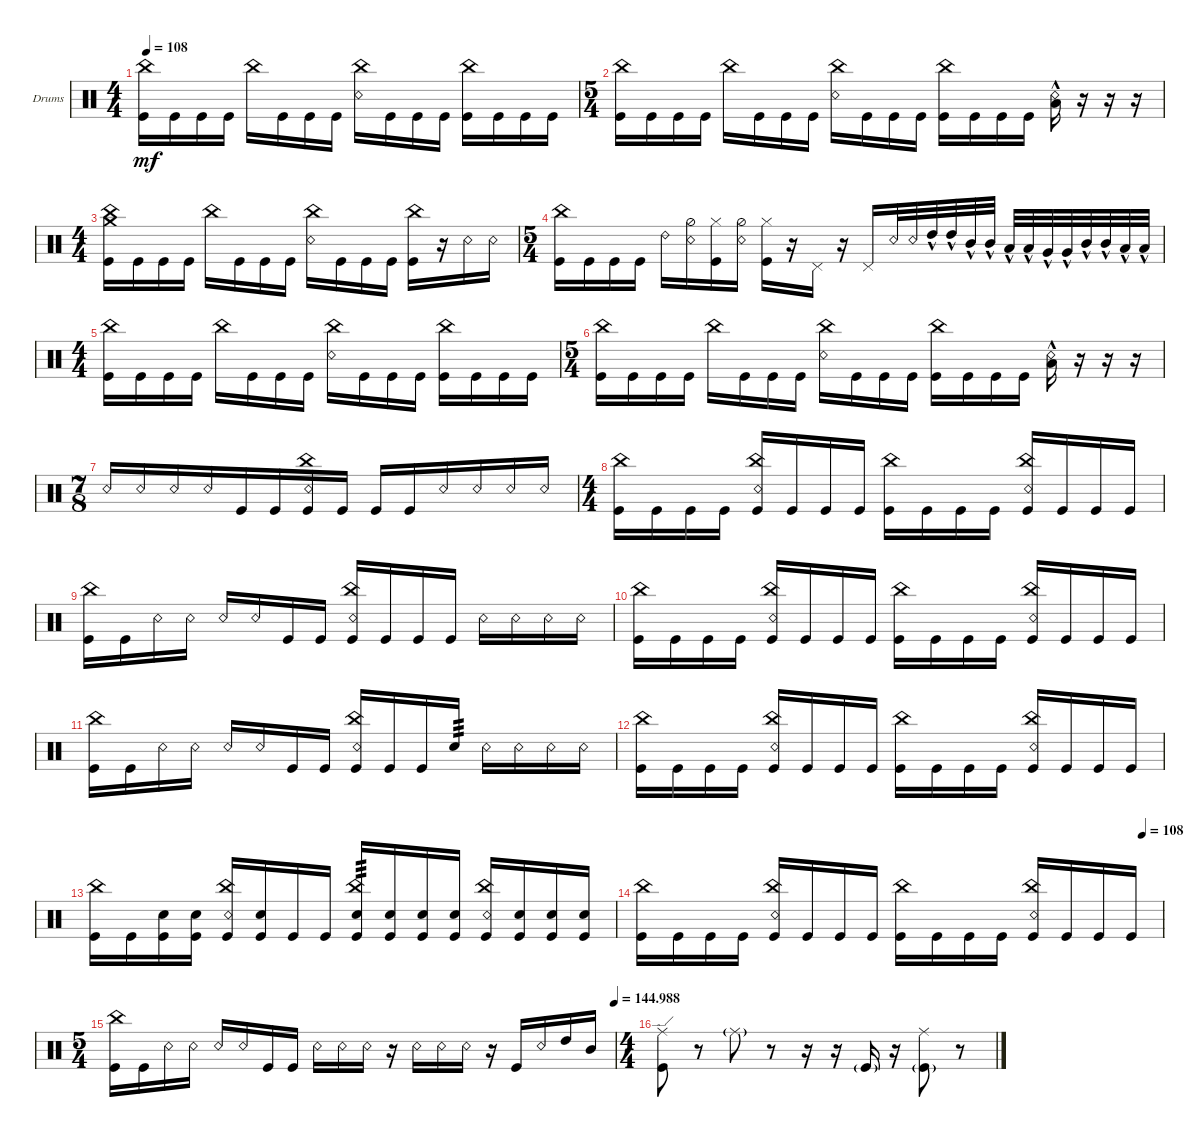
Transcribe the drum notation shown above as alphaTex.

\defaultSystemsLayout 4
\bracketExtendMode groupsimilarinstruments
\firstSystemTrackNameOrientation horizontal
\otherSystemsTrackNameOrientation horizontal
\track ("Drumkit" "Drums") {solo instrument percussion}
\staff {score}
\articulation defaults
\ts (4 4)
\tempo 108
\clef neutral
\ks c
("Kick (hit)" "China (hit)").16{dy mf} "Kick (hit)".16 "Kick (hit)".16 "Kick (hit)".16 "China (hit)".16 "Kick (hit)".16 "Kick (hit)".16 "Kick (hit)".16 ("Snare (rim shot)" "China (hit)").16 "Kick (hit)".16 "Kick (hit)".16 "Kick (hit)".16 ("Kick (hit)" "China (hit)").16 "Kick (hit)".16 "Kick (hit)".16 "Kick (hit)".16 |
\ts (5 4)
("Kick (hit)" "China (hit)").16 "Kick (hit)".16 "Kick (hit)".16 "Kick (hit)".16 "China (hit)".16 "Kick (hit)".16 "Kick (hit)".16 "Kick (hit)".16 ("Snare (rim shot)" "China (hit)").16 "Kick (hit)".16 "Kick (hit)".16 "Kick (hit)".16 ("Kick (hit)" "China (hit)").16 "Kick (hit)".16 "Kick (hit)".16 "Kick (hit)".16 ("Snare (rim shot)"{hac} "Low Tom (hit)"{hac}).16 r.16 r.16 r.16 |
\ts (4 4)
("Kick (hit)" "China (hit)" "Crash medium (hit)").16 "Kick (hit)".16 "Kick (hit)".16 "Kick (hit)".16 "China (hit)".16 "Kick (hit)".16 "Kick (hit)".16 "Kick (hit)".16 ("Snare (rim shot)" "China (hit)").16 "Kick (hit)".16 "Kick (hit)".16 "Kick (hit)".16 ("Kick (hit)" "China (hit)").16 r.16 "Snare (rim shot)".16 "Snare (rim shot)".16 |
\ts (5 4)
("Kick (hit)" "China (hit)").16 "Kick (hit)".16 "Kick (hit)".16 "Kick (hit)".16 "Ride (bell) 2".16 ("Snare (rim shot)" "Hi-Hat (half)").16 ("Hi-Hat (closed)" "Kick (hit)").16 ("Snare (rim shot)" "Hi-Hat (half)").16 ("Hi-Hat (closed)" "Kick (hit)").16 r.16 "Pedal Hi-Hat (hit)".16 r.16 "Pedal Hi-Hat (hit)".16 "Snare (rim shot)".32 "Snare (rim shot)".32 "High Tom (hit)"{hac}.32 "High Tom (hit)"{hac}.32 "Mid Tom (hit)"{hac}.32 "Mid Tom (hit)"{hac}.32 "Low Tom (hit)"{hac}.32 "Low Tom (hit)"{hac}.32 "Very Low Tom (hit)"{hac}.32 "Very Low Tom (hit)"{hac}.32 "Mid Tom (hit)"{hac}.32 "Mid Tom (hit)"{hac}.32 "Low Tom (hit)"{hac}.32 "Low Tom (hit)"{hac}.32 |
\ts (4 4)
("Kick (hit)" "China (hit)").16 "Kick (hit)".16 "Kick (hit)".16 "Kick (hit)".16 "China (hit)".16 "Kick (hit)".16 "Kick (hit)".16 "Kick (hit)".16 ("Snare (rim shot)" "China (hit)").16 "Kick (hit)".16 "Kick (hit)".16 "Kick (hit)".16 ("Kick (hit)" "China (hit)").16 "Kick (hit)".16 "Kick (hit)".16 "Kick (hit)".16 |
\ts (5 4)
("Kick (hit)" "China (hit)").16 "Kick (hit)".16 "Kick (hit)".16 "Kick (hit)".16 "China (hit)".16 "Kick (hit)".16 "Kick (hit)".16 "Kick (hit)".16 ("Snare (rim shot)" "China (hit)").16 "Kick (hit)".16 "Kick (hit)".16 "Kick (hit)".16 ("Kick (hit)" "China (hit)").16 "Kick (hit)".16 "Kick (hit)".16 "Kick (hit)".16 ("Snare (rim shot)"{hac} "Low Tom (hit)"{hac}).16 r.16 r.16 r.16 |
\ts (7 8)
"Snare (rim shot)".16 "Snare (rim shot)".16 "Snare (rim shot)".16 "Snare (rim shot)".16 "Kick (hit)".16 "Kick (hit)".16 ("Kick (hit)" "Snare (rim shot)" "China (hit)").16 "Kick (hit)".16 "Kick (hit)".16 "Kick (hit)".16 "Snare (rim shot)".16 "Snare (rim shot)".16 "Snare (rim shot)".16 "Snare (rim shot)".16 |
\ts (4 4)
("Kick (hit)" "China (hit)").16 "Kick (hit)".16 "Kick (hit)".16 "Kick (hit)".16 ("Kick (hit)" "China (hit)" "Snare (rim shot)").16 "Kick (hit)".16 "Kick (hit)".16 "Kick (hit)".16 ("Kick (hit)" "China (hit)").16 "Kick (hit)".16 "Kick (hit)".16 "Kick (hit)".16 ("Kick (hit)" "China (hit)" "Snare (rim shot)").16 "Kick (hit)".16 "Kick (hit)".16 "Kick (hit)".16 |
("Kick (hit)" "China (hit)").16 "Kick (hit)".16 "Snare (rim shot)".16 "Snare (rim shot)".16 "Snare (rim shot)".16 "Snare (rim shot)".16 "Kick (hit)".16 "Kick (hit)".16 ("Kick (hit)" "Snare (rim shot)" "China (hit)").16 "Kick (hit)".16 "Kick (hit)".16 "Kick (hit)".16 "Snare (rim shot)".16 "Snare (rim shot)".16 "Snare (rim shot)".16 "Snare (rim shot)".16 |
("Kick (hit)" "China (hit)").16 "Kick (hit)".16 "Kick (hit)".16 "Kick (hit)".16 ("Kick (hit)" "China (hit)" "Snare (rim shot)").16 "Kick (hit)".16 "Kick (hit)".16 "Kick (hit)".16 ("Kick (hit)" "China (hit)").16 "Kick (hit)".16 "Kick (hit)".16 "Kick (hit)".16 ("Kick (hit)" "China (hit)" "Snare (rim shot)").16 "Kick (hit)".16 "Kick (hit)".16 "Kick (hit)".16 |
("Kick (hit)" "China (hit)").16 "Kick (hit)".16 "Snare (rim shot)".16 "Snare (rim shot)".16 "Snare (rim shot)".16 "Snare (rim shot)".16 "Kick (hit)".16 "Kick (hit)".16 ("Kick (hit)" "Snare (rim shot)" "China (hit)").16 "Kick (hit)".16 "Kick (hit)".16 "Snare (hit) 2".16{tp 3} "Snare (rim shot)".16 "Snare (rim shot)".16 "Snare (rim shot)".16 "Snare (rim shot)".16 |
("Kick (hit)" "China (hit)").16 "Kick (hit)".16 "Kick (hit)".16 "Kick (hit)".16 ("Kick (hit)" "China (hit)" "Snare (rim shot)").16 "Kick (hit)".16 "Kick (hit)".16 "Kick (hit)".16 ("Kick (hit)" "China (hit)").16 "Kick (hit)".16 "Kick (hit)".16 "Kick (hit)".16 ("Kick (hit)" "China (hit)" "Snare (rim shot)").16 "Kick (hit)".16 "Kick (hit)".16 "Kick (hit)".16 |
("Kick (hit)" "China (hit)").16 "Kick (hit)".16 ("Kick (hit)" "Snare (hit) 2").16 ("Kick (hit)" "Snare (hit) 2").16 ("Snare (rim shot)" "China (hit)" "Kick (hit)").16 ("Kick (hit)" "Snare (hit) 2").16 "Kick (hit)".16 "Kick (hit)".16 ("Kick (hit)" "China (hit)" "Snare (hit) 2").16{tp 3} ("Kick (hit)" "Snare (hit) 2").16 ("Kick (hit)" "Snare (hit) 2").16 ("Kick (hit)" "Snare (hit) 2").16 ("Snare (rim shot)" "Kick (hit)" "China (hit)").16 ("Kick (hit)" "Snare (hit) 2").16 ("Kick (hit)" "Snare (hit) 2").16 ("Kick (hit)" "Snare (hit) 2").16 |
\tempo (108 0.9625)
("Kick (hit)" "China (hit)").16 "Kick (hit)".16 "Kick (hit)".16 "Kick (hit)".16 ("Kick (hit)" "China (hit)" "Snare (rim shot)").16 "Kick (hit)".16 "Kick (hit)".16 "Kick (hit)".16 ("Kick (hit)" "China (hit)").16 "Kick (hit)".16 "Kick (hit)".16 "Kick (hit)".16 ("Kick (hit)" "China (hit)" "Snare (rim shot)").16 "Kick (hit)".16 "Kick (hit)".16 "Kick (hit)".16 |
\ts (5 4)
\tempo (144.988 1)
("Kick (hit)" "China (hit)").16 "Kick (hit)".16 "Snare (rim shot)".16 "Snare (rim shot)".16 "Snare (rim shot)".16 "Snare (rim shot)".16 "Kick (hit)".16 "Kick (hit)".16 "Snare (rim shot)".16 "Snare (rim shot)".16 "Snare (rim shot)".16 r.16 "Snare (rim shot)".16 "Snare (rim shot)".16 "Snare (rim shot)".16 r.16 "Kick (hit)".16 "Snare (rim shot)".16 "High Tom (hit)".16 "Mid Tom (hit)".16 |
\ts (4 4)
("Kick (hit)" "Ride (edge)").8 r.8 "Ride (middle)"{g}.8 r.8 r.16 r.16 "Kick (hit)"{g}.16 r.16 ("Ride (middle)" "Kick (hit)"{g}).8 r.8
